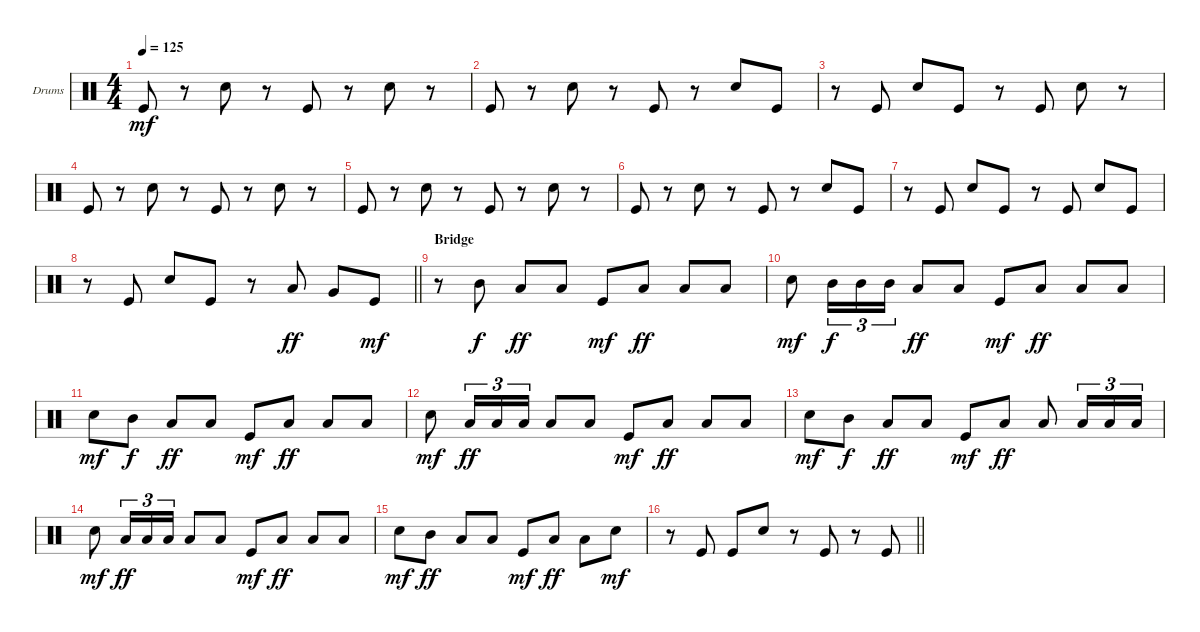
\bracketExtendMode groupsimilarinstruments
\firstSystemTrackNameOrientation horizontal
\otherSystemsTrackNameOrientation horizontal
\track ("Nick Menza" "Drums") {instrument percussion}
\staff {score}
\articulation defaults
\ts (4 4)
\tempo 125
\clef neutral
\ks c "Kick (hit)".8{dy mf}
r.8 "Snare (hit) 2".8 r.8 "Kick (hit)".8 r.8 "Snare (hit) 2".8 r.8 |
"Kick (hit)".8 r.8 "Snare (hit) 2".8 r.8 "Kick (hit)".8 r.8 "Snare (hit) 2".8 "Kick (hit)".8 |
r.8 "Kick (hit)".8 "Snare (hit) 2".8 "Kick (hit)".8 r.8 "Kick (hit)".8 "Snare (hit) 2".8 r.8 |
"Kick (hit)".8 r.8 "Snare (hit) 2".8 r.8 "Kick (hit)".8 r.8 "Snare (hit) 2".8 r.8 |
"Kick (hit)".8 r.8 "Snare (hit) 2".8 r.8 "Kick (hit)".8 r.8 "Snare (hit) 2".8 r.8 |
"Kick (hit)".8 r.8 "Snare (hit) 2".8 r.8 "Kick (hit)".8 r.8 "Snare (hit) 2".8 "Kick (hit)".8 |
r.8 "Kick (hit)".8 "Snare (hit) 2".8 "Kick (hit)".8 r.8 "Kick (hit)".8 "Snare (hit) 2".8 "Kick (hit)".8 |
\barLineRight lightlight
r.8 "Kick (hit)".8 "Snare (hit) 2".8 "Kick (hit)".8 r.8 "Low Tom (hit)".8{dy ff} "Very Low Tom (hit)".8 "Kick (hit)".8{dy mf} |
\section ("" "Bridge")
r.8 "Mid Tom (hit)".8{dy f} "Low Tom (hit)".8{dy ff} "Low Tom (hit)".8 "Kick (hit)".8{dy mf} "Low Tom (hit)".8{dy ff} "Low Tom (hit)".8 "Low Tom (hit)".8 |
"Snare (hit) 2".8{dy mf} "Mid Tom (hit)".16{tu (3 2) dy f} "Mid Tom (hit)".16{tu (3 2)} "Mid Tom (hit)".16{tu (3 2)} "Low Tom (hit)".8{dy ff} "Low Tom (hit)".8 "Kick (hit)".8{dy mf} "Low Tom (hit)".8{dy ff} "Low Tom (hit)".8 "Low Tom (hit)".8 |
"Snare (hit) 2".8{dy mf} "Mid Tom (hit)".8{dy f} "Low Tom (hit)".8{dy ff} "Low Tom (hit)".8 "Kick (hit)".8{dy mf} "Low Tom (hit)".8{dy ff} "Low Tom (hit)".8 "Low Tom (hit)".8 |
"Snare (hit) 2".8{dy mf} "Low Tom (hit)".16{tu (3 2) dy ff} "Low Tom (hit)".16{tu (3 2)} "Low Tom (hit)".16{tu (3 2)} "Low Tom (hit)".8 "Low Tom (hit)".8 "Kick (hit)".8{dy mf} "Low Tom (hit)".8{dy ff} "Low Tom (hit)".8 "Low Tom (hit)".8 |
"Snare (hit) 2".8{dy mf} "Mid Tom (hit)".8{dy f} "Low Tom (hit)".8{dy ff} "Low Tom (hit)".8 "Kick (hit)".8{dy mf} "Low Tom (hit)".8{dy ff} "Low Tom (hit)".8 "Low Tom (hit)".16{tu (3 2)} "Low Tom (hit)".16{tu (3 2)} "Low Tom (hit)".16{tu (3 2)} |
"Snare (hit) 2".8{dy mf} "Low Tom (hit)".16{tu (3 2) dy ff} "Low Tom (hit)".16{tu (3 2)} "Low Tom (hit)".16{tu (3 2)} "Low Tom (hit)".8 "Low Tom (hit)".8 "Kick (hit)".8{dy mf} "Low Tom (hit)".8{dy ff} "Low Tom (hit)".8 "Low Tom (hit)".8 |
"Snare (hit) 2".8{dy mf} "Mid Tom (hit)".8{dy ff} "Low Tom (hit)".8 "Low Tom (hit)".8 "Kick (hit)".8{dy mf} "Low Tom (hit)".8{dy ff} "Low Tom (hit)".8 "Snare (hit) 2".8{dy mf} |
\barLineRight lightlight
r.8 "Kick (hit)".8 "Kick (hit)".8 "Snare (hit) 2".8 r.8 "Kick (hit)".8 r.8 "Kick (hit)".8
